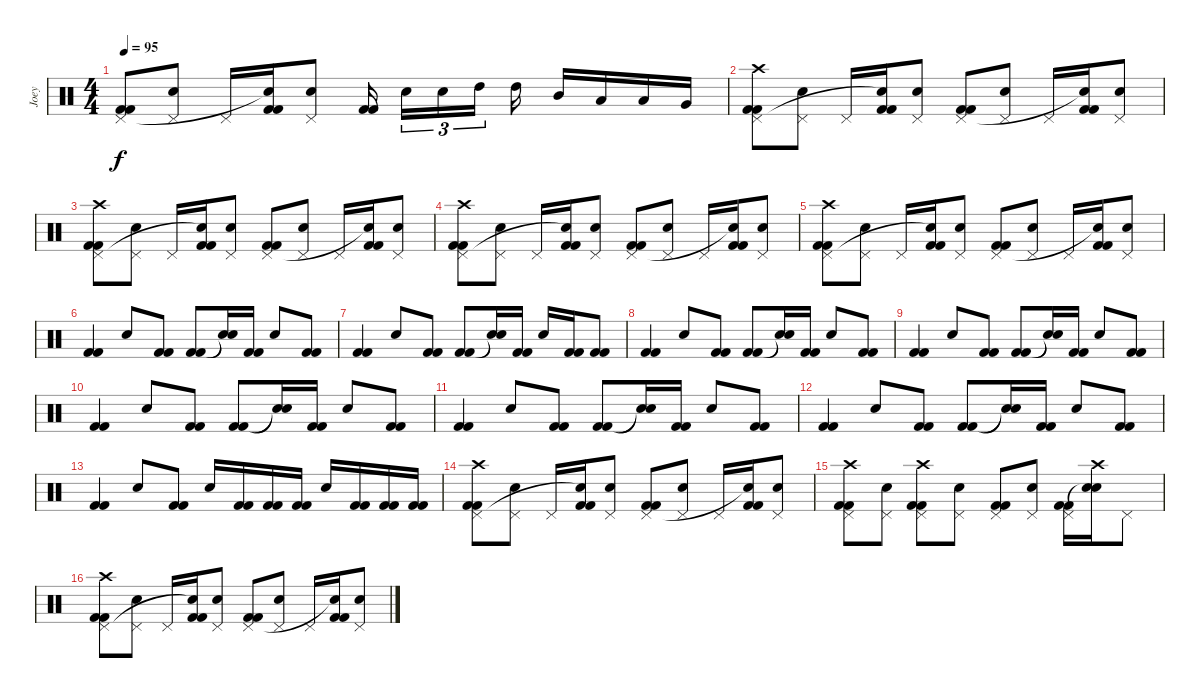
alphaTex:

\track ("Joey" "Joey") {instrument percussion}
\staff {score}
\articulation defaults
\ts (4 4)
\tempo 95
\clef neutral
\ks c
("Kick (hit) 2" "Kick (hit) 2" "Pedal Hi-Hat (hit)").8{dy f} ("Electric Snare (hit)" "Pedal Hi-Hat (hit)").8 "Pedal Hi-Hat (hit)".16 ("Kick (hit) 2" "Kick (hit) 2" "Snare (hit)"{t}).16 ("Electric Snare (hit)" "Pedal Hi-Hat (hit)").8 ("Kick (hit) 2" "Kick (hit) 2").16 "Electric Snare (hit)".16{tu (3 2)} "Electric Snare (hit)".16{tu (3 2)} "High Tom (hit)".16{tu (3 2)} "High Tom (hit)".16 "Mid Tom (hit)".16 "Low Tom (hit)".16 "Low Tom (hit)".16 "Very Low Tom (hit)".16 |
("Kick (hit) 2" "Kick (hit) 2" "Pedal Hi-Hat (hit)" "Crash high (hit)").8 ("Electric Snare (hit)" "Pedal Hi-Hat (hit)").8 "Pedal Hi-Hat (hit)".16 ("Kick (hit) 2" "Kick (hit) 2" "Snare (hit)"{t}).16 ("Electric Snare (hit)" "Pedal Hi-Hat (hit)").8 ("Kick (hit) 2" "Kick (hit) 2" "Pedal Hi-Hat (hit)").8 ("Electric Snare (hit)" "Pedal Hi-Hat (hit)").8 "Pedal Hi-Hat (hit)".16 ("Kick (hit) 2" "Kick (hit) 2" "Snare (hit)"{t}).16 ("Electric Snare (hit)" "Pedal Hi-Hat (hit)").8 |
("Kick (hit) 2" "Kick (hit) 2" "Pedal Hi-Hat (hit)" "Crash high (hit)").8 ("Electric Snare (hit)" "Pedal Hi-Hat (hit)").8 "Pedal Hi-Hat (hit)".16 ("Kick (hit) 2" "Kick (hit) 2" "Snare (hit)"{t}).16 ("Electric Snare (hit)" "Pedal Hi-Hat (hit)").8 ("Kick (hit) 2" "Kick (hit) 2" "Pedal Hi-Hat (hit)").8 ("Electric Snare (hit)" "Pedal Hi-Hat (hit)").8 "Pedal Hi-Hat (hit)".16 ("Kick (hit) 2" "Kick (hit) 2" "Snare (hit)"{t}).16 ("Electric Snare (hit)" "Pedal Hi-Hat (hit)").8 |
("Kick (hit) 2" "Kick (hit) 2" "Pedal Hi-Hat (hit)" "Crash high (hit)").8 ("Electric Snare (hit)" "Pedal Hi-Hat (hit)").8 "Pedal Hi-Hat (hit)".16 ("Kick (hit) 2" "Kick (hit) 2" "Snare (hit)"{t}).16 ("Electric Snare (hit)" "Pedal Hi-Hat (hit)").8 ("Kick (hit) 2" "Kick (hit) 2" "Pedal Hi-Hat (hit)").8 ("Electric Snare (hit)" "Pedal Hi-Hat (hit)").8 "Pedal Hi-Hat (hit)".16 ("Kick (hit) 2" "Kick (hit) 2" "Snare (hit)"{t}).16 ("Electric Snare (hit)" "Pedal Hi-Hat (hit)").8 |
("Kick (hit) 2" "Kick (hit) 2" "Pedal Hi-Hat (hit)" "Crash high (hit)").8 ("Electric Snare (hit)" "Pedal Hi-Hat (hit)").8 "Pedal Hi-Hat (hit)".16 ("Kick (hit) 2" "Kick (hit) 2" "Snare (hit)"{t}).16 ("Electric Snare (hit)" "Pedal Hi-Hat (hit)").8 ("Kick (hit) 2" "Kick (hit) 2" "Pedal Hi-Hat (hit)").8 ("Electric Snare (hit)" "Pedal Hi-Hat (hit)").8 "Pedal Hi-Hat (hit)".16 ("Kick (hit) 2" "Kick (hit) 2" "Snare (hit)"{t}).16 ("Electric Snare (hit)" "Pedal Hi-Hat (hit)").8 |
("Kick (hit) 2" "Kick (hit) 2").4 "Electric Snare (hit)".8 ("Kick (hit) 2" "Kick (hit) 2").8 ("Kick (hit) 2" "Kick (hit) 2").8 ("Snare (hit)"{t} "Snare (hit)"{t}).16 ("Kick (hit) 2" "Kick (hit) 2").16 "Electric Snare (hit)".8 ("Kick (hit) 2" "Kick (hit) 2").8 |
("Kick (hit) 2" "Kick (hit) 2").4 "Electric Snare (hit)".8 ("Kick (hit) 2" "Kick (hit) 2").8 ("Kick (hit) 2" "Kick (hit) 2").8 ("Snare (hit)"{t} "Snare (hit)"{t}).16 ("Kick (hit) 2" "Kick (hit) 2").16 "Electric Snare (hit)".16 ("Kick (hit) 2" "Kick (hit) 2").16 ("Kick (hit) 2" "Kick (hit) 2").8 |
("Kick (hit) 2" "Kick (hit) 2").4 "Electric Snare (hit)".8 ("Kick (hit) 2" "Kick (hit) 2").8 ("Kick (hit) 2" "Kick (hit) 2").8 ("Snare (hit)"{t} "Snare (hit)"{t}).16 ("Kick (hit) 2" "Kick (hit) 2").16 "Electric Snare (hit)".8 ("Kick (hit) 2" "Kick (hit) 2").8 |
("Kick (hit) 2" "Kick (hit) 2").4 "Electric Snare (hit)".8 ("Kick (hit) 2" "Kick (hit) 2").8 ("Kick (hit) 2" "Kick (hit) 2").8 ("Snare (hit)"{t} "Snare (hit)"{t}).16 ("Kick (hit) 2" "Kick (hit) 2").16 "Electric Snare (hit)".8 ("Kick (hit) 2" "Kick (hit) 2").8 |
("Kick (hit) 2" "Kick (hit) 2").4 "Electric Snare (hit)".8 ("Kick (hit) 2" "Kick (hit) 2").8 ("Kick (hit) 2" "Kick (hit) 2").8 ("Snare (hit)"{t} "Snare (hit)"{t}).16 ("Kick (hit) 2" "Kick (hit) 2").16 "Electric Snare (hit)".8 ("Kick (hit) 2" "Kick (hit) 2").8 |
("Kick (hit) 2" "Kick (hit) 2").4 "Electric Snare (hit)".8 ("Kick (hit) 2" "Kick (hit) 2").8 ("Kick (hit) 2" "Kick (hit) 2").8 ("Snare (hit)"{t} "Snare (hit)"{t}).16 ("Kick (hit) 2" "Kick (hit) 2").16 "Electric Snare (hit)".8 ("Kick (hit) 2" "Kick (hit) 2").8 |
("Kick (hit) 2" "Kick (hit) 2").4 "Electric Snare (hit)".8 ("Kick (hit) 2" "Kick (hit) 2").8 ("Kick (hit) 2" "Kick (hit) 2").8 ("Snare (hit)"{t} "Snare (hit)"{t}).16 ("Kick (hit) 2" "Kick (hit) 2").16 "Electric Snare (hit)".8 ("Kick (hit) 2" "Kick (hit) 2").8 |
("Kick (hit) 2" "Kick (hit) 2").4 "Electric Snare (hit)".8 ("Kick (hit) 2" "Kick (hit) 2").8 "Electric Snare (hit)".16 ("Kick (hit) 2" "Kick (hit) 2").16 ("Kick (hit) 2" "Kick (hit) 2").16 ("Kick (hit) 2" "Kick (hit) 2").16 "Electric Snare (hit)".16 ("Kick (hit) 2" "Kick (hit) 2").16 ("Kick (hit) 2" "Kick (hit) 2").16 ("Kick (hit) 2" "Kick (hit) 2").16 |
("Kick (hit) 2" "Kick (hit) 2" "Pedal Hi-Hat (hit)" "Crash high (hit)").8 ("Electric Snare (hit)" "Pedal Hi-Hat (hit)").8 "Pedal Hi-Hat (hit)".16 ("Kick (hit) 2" "Kick (hit) 2" "Snare (hit)"{t}).16 ("Electric Snare (hit)" "Pedal Hi-Hat (hit)").8 ("Kick (hit) 2" "Kick (hit) 2" "Pedal Hi-Hat (hit)").8 ("Electric Snare (hit)" "Pedal Hi-Hat (hit)").8 "Pedal Hi-Hat (hit)".16 ("Kick (hit) 2" "Kick (hit) 2" "Snare (hit)"{t}).16 ("Electric Snare (hit)" "Pedal Hi-Hat (hit)").8 |
("Kick (hit) 2" "Kick (hit) 2" "Crash high (hit)" "Pedal Hi-Hat (hit)").8 ("Electric Snare (hit)" "Pedal Hi-Hat (hit)").8 ("Kick (hit) 2" "Kick (hit) 2" "Crash high (hit)" "Pedal Hi-Hat (hit)").8 ("Electric Snare (hit)" "Pedal Hi-Hat (hit)").8 ("Kick (hit) 2" "Kick (hit) 2" "Pedal Hi-Hat (hit)").8 ("Electric Snare (hit)" "Pedal Hi-Hat (hit)").8 ("Kick (hit) 2" "Kick (hit) 2" "Pedal Hi-Hat (hit)").16 ("Electric Snare (hit)" "Crash high (hit)" "Snare (hit)"{t}).16 "Pedal Hi-Hat (hit)".8 |
("Kick (hit) 2" "Kick (hit) 2" "Pedal Hi-Hat (hit)" "Crash high (hit)").8 ("Electric Snare (hit)" "Pedal Hi-Hat (hit)").8 "Pedal Hi-Hat (hit)".16 ("Kick (hit) 2" "Kick (hit) 2" "Snare (hit)"{t}).16 ("Electric Snare (hit)" "Pedal Hi-Hat (hit)").8 ("Kick (hit) 2" "Kick (hit) 2" "Pedal Hi-Hat (hit)").8 ("Electric Snare (hit)" "Pedal Hi-Hat (hit)").8 "Pedal Hi-Hat (hit)".16 ("Kick (hit) 2" "Kick (hit) 2" "Snare (hit)"{t}).16 ("Electric Snare (hit)" "Pedal Hi-Hat (hit)").8
